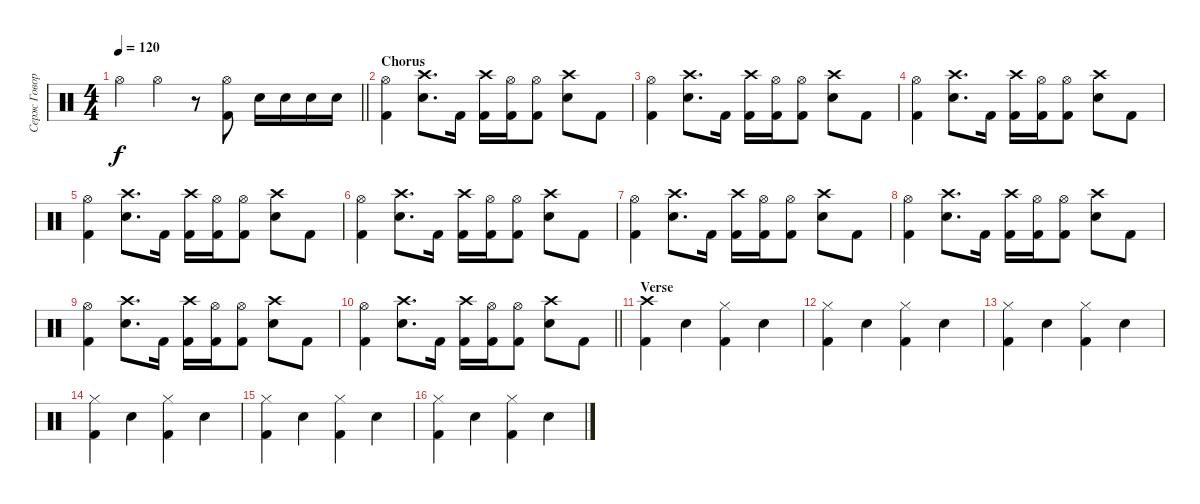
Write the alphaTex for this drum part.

\track ("Серж Говорун" "Серж Говор") {instrument percussion}
\staff {score}
\articulation defaults
\ts (4 4)
\tempo 120
\clef neutral
\barLineRight lightlight
\ks c "Hi-Hat (open)".4{dy f} "Hi-Hat (open)".4
r.8 ("Kick (hit) 2" "Hi-Hat (open)").8 "Electric Snare (hit)".16 "Electric Snare (hit)".16 "Electric Snare (hit)".16 "Electric Snare (hit)".16 |
\section ("" "Chorus")
("Hi-Hat (open)" "Kick (hit) 2").4 ("Crash high (hit)" "Electric Snare (hit)").8{d} "Kick (hit) 2".16 ("Kick (hit) 2" "Crash high (hit)").16 ("Kick (hit) 2" "Hi-Hat (open)").16 ("Kick (hit) 2" "Hi-Hat (open)").8 ("Electric Snare (hit)" "Crash high (hit)").8 "Kick (hit) 2".8 |
("Hi-Hat (open)" "Kick (hit) 2").4 ("Crash high (hit)" "Electric Snare (hit)").8{d} "Kick (hit) 2".16 ("Kick (hit) 2" "Crash high (hit)").16 ("Kick (hit) 2" "Hi-Hat (open)").16 ("Kick (hit) 2" "Hi-Hat (open)").8 ("Electric Snare (hit)" "Crash high (hit)").8 "Kick (hit) 2".8 |
("Hi-Hat (open)" "Kick (hit) 2").4 ("Crash high (hit)" "Electric Snare (hit)").8{d} "Kick (hit) 2".16 ("Kick (hit) 2" "Crash high (hit)").16 ("Kick (hit) 2" "Hi-Hat (open)").16 ("Kick (hit) 2" "Hi-Hat (open)").8 ("Electric Snare (hit)" "Crash high (hit)").8 "Kick (hit) 2".8 |
("Hi-Hat (open)" "Kick (hit) 2").4 ("Crash high (hit)" "Electric Snare (hit)").8{d} "Kick (hit) 2".16 ("Kick (hit) 2" "Crash high (hit)").16 ("Kick (hit) 2" "Hi-Hat (open)").16 ("Kick (hit) 2" "Hi-Hat (open)").8 ("Electric Snare (hit)" "Crash high (hit)").8 "Kick (hit) 2".8 |
("Hi-Hat (open)" "Kick (hit) 2").4 ("Crash high (hit)" "Electric Snare (hit)").8{d} "Kick (hit) 2".16 ("Kick (hit) 2" "Crash high (hit)").16 ("Kick (hit) 2" "Hi-Hat (open)").16 ("Kick (hit) 2" "Hi-Hat (open)").8 ("Electric Snare (hit)" "Crash high (hit)").8 "Kick (hit) 2".8 |
("Hi-Hat (open)" "Kick (hit) 2").4 ("Crash high (hit)" "Electric Snare (hit)").8{d} "Kick (hit) 2".16 ("Kick (hit) 2" "Crash high (hit)").16 ("Kick (hit) 2" "Hi-Hat (open)").16 ("Kick (hit) 2" "Hi-Hat (open)").8 ("Electric Snare (hit)" "Crash high (hit)").8 "Kick (hit) 2".8 |
("Hi-Hat (open)" "Kick (hit) 2").4 ("Crash high (hit)" "Electric Snare (hit)").8{d} "Kick (hit) 2".16 ("Kick (hit) 2" "Crash high (hit)").16 ("Kick (hit) 2" "Hi-Hat (open)").16 ("Kick (hit) 2" "Hi-Hat (open)").8 ("Electric Snare (hit)" "Crash high (hit)").8 "Kick (hit) 2".8 |
("Hi-Hat (open)" "Kick (hit) 2").4 ("Crash high (hit)" "Electric Snare (hit)").8{d} "Kick (hit) 2".16 ("Kick (hit) 2" "Crash high (hit)").16 ("Kick (hit) 2" "Hi-Hat (open)").16 ("Kick (hit) 2" "Hi-Hat (open)").8 ("Electric Snare (hit)" "Crash high (hit)").8 "Kick (hit) 2".8 |
\barLineRight lightlight
("Hi-Hat (open)" "Kick (hit) 2").4 ("Crash high (hit)" "Electric Snare (hit)").8{d} "Kick (hit) 2".16 ("Kick (hit) 2" "Crash high (hit)").16 ("Kick (hit) 2" "Hi-Hat (open)").16 ("Kick (hit) 2" "Hi-Hat (open)").8 ("Electric Snare (hit)" "Crash high (hit)").8 "Kick (hit) 2".8 |
\section ("" "Verse")
("Crash high (hit)" "Kick (hit) 2").4 "Electric Snare (hit)".4 ("Hi-Hat (closed)" "Kick (hit) 2").4 "Electric Snare (hit)".4 |
("Hi-Hat (closed)" "Kick (hit) 2").4 "Electric Snare (hit)".4 ("Hi-Hat (closed)" "Kick (hit) 2").4 "Electric Snare (hit)".4 |
("Hi-Hat (closed)" "Kick (hit) 2").4 "Electric Snare (hit)".4 ("Hi-Hat (closed)" "Kick (hit) 2").4 "Electric Snare (hit)".4 |
("Hi-Hat (closed)" "Kick (hit) 2").4 "Electric Snare (hit)".4 ("Hi-Hat (closed)" "Kick (hit) 2").4 "Electric Snare (hit)".4 |
("Hi-Hat (closed)" "Kick (hit) 2").4 "Electric Snare (hit)".4 ("Hi-Hat (closed)" "Kick (hit) 2").4 "Electric Snare (hit)".4 |
("Hi-Hat (closed)" "Kick (hit) 2").4 "Electric Snare (hit)".4 ("Hi-Hat (closed)" "Kick (hit) 2").4 "Electric Snare (hit)".4
